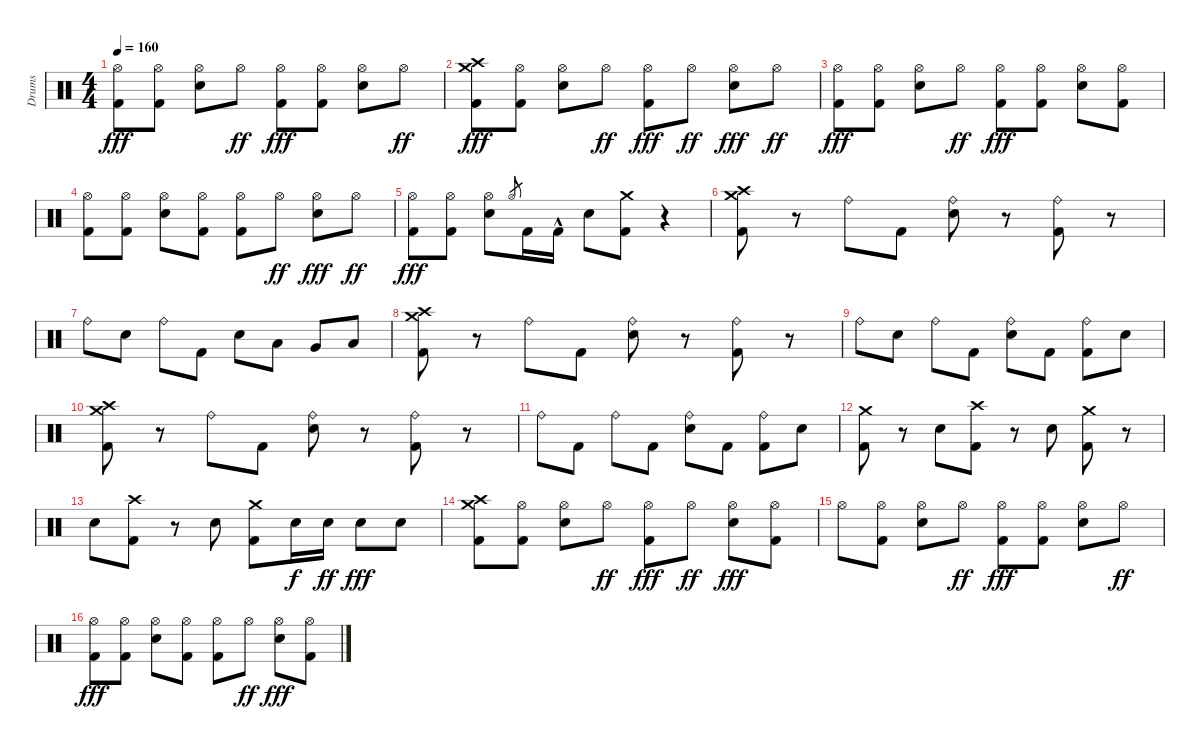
\track ("Drums" "Drums") {instrument percussion}
\staff {score}
\articulation defaults
\ts (4 4)
\tempo 160
\clef neutral
\ks c
("Hi-Hat (open)" "Kick (hit) 2").8{dy fff} ("Hi-Hat (open)" "Kick (hit) 2").8 ("Hi-Hat (open)" "Snare (hit) 2").8 "Hi-Hat (open)".8{dy ff} ("Hi-Hat (open)" "Kick (hit) 2").8{dy fff} ("Hi-Hat (open)" "Kick (hit) 2").8 ("Hi-Hat (open)" "Snare (hit) 2").8 "Hi-Hat (open)".8{dy ff} |
("Crash high (hit)" "Crash medium (hit)" "Kick (hit) 2").8{dy fff} ("Hi-Hat (open)" "Kick (hit) 2").8 ("Hi-Hat (open)" "Snare (hit) 2").8 "Hi-Hat (open)".8{dy ff} ("Hi-Hat (open)" "Kick (hit) 2").8{dy fff} "Hi-Hat (open)".8{dy ff} ("Hi-Hat (open)" "Snare (hit) 2").8{dy fff} "Hi-Hat (open)".8{dy ff} |
("Hi-Hat (open)" "Kick (hit) 2").8{dy fff} ("Hi-Hat (open)" "Kick (hit) 2").8 ("Hi-Hat (open)" "Snare (hit) 2").8 "Hi-Hat (open)".8{dy ff} ("Hi-Hat (open)" "Kick (hit) 2").8{dy fff} ("Hi-Hat (open)" "Kick (hit) 2").8 ("Hi-Hat (open)" "Snare (hit) 2").8 ("Hi-Hat (open)" "Kick (hit) 2").8 |
("Hi-Hat (open)" "Kick (hit) 2").8 ("Hi-Hat (open)" "Kick (hit) 2").8 ("Hi-Hat (open)" "Snare (hit) 2").8 ("Hi-Hat (open)" "Kick (hit) 2").8 ("Hi-Hat (open)" "Kick (hit) 2").8 "Hi-Hat (open)".8{dy ff} ("Hi-Hat (open)" "Snare (hit) 2").8{dy fff} "Hi-Hat (open)".8{dy ff} |
("Hi-Hat (open)" "Kick (hit) 2").8{dy fff} ("Hi-Hat (open)" "Kick (hit) 2").8 ("Hi-Hat (open)" "Snare (hit) 2").8 "Hi-Hat (open)".8{gr} "Kick (hit) 2".16 "Kick (hit) 2"{hac}.16 "Snare (hit) 2".8 ("Kick (hit) 2" "Crash medium (hit)").8 r.4 |
("Kick (hit) 2" "Crash high (hit)" "Crash medium (hit)").8 r.8 "Ride (bell)".8 "Kick (hit) 2".8 ("Ride (bell)" "Snare (hit) 2").8 r.8 ("Ride (bell)" "Kick (hit) 2").8 r.8 |
"Ride (bell)".8 "Snare (hit) 2".8 "Ride (bell)".8 "Kick (hit) 2".8 "Snare (hit) 2".8 "Low Tom (hit)".8 "Very Low Tom (hit)".8 "Low Floor Tom (hit)".8 |
("Kick (hit) 2" "Crash high (hit)" "Crash medium (hit)").8 r.8 "Ride (bell)".8 "Kick (hit) 2".8 ("Ride (bell)" "Snare (hit) 2").8 r.8 ("Ride (bell)" "Kick (hit) 2").8 r.8 |
"Ride (bell)".8 "Snare (hit) 2".8 "Ride (bell)".8 "Kick (hit) 2".8 ("Ride (bell)" "Snare (hit) 2").8 "Kick (hit) 2".8 ("Ride (bell)" "Kick (hit) 2").8 "Snare (hit) 2".8 |
("Kick (hit) 2" "Crash high (hit)" "Crash medium (hit)").8 r.8 "Ride (bell)".8 "Kick (hit) 2".8 ("Ride (bell)" "Snare (hit) 2").8 r.8 ("Ride (bell)" "Kick (hit) 2").8 r.8 |
"Ride (bell)".8 "Kick (hit) 2".8 "Ride (bell)".8 "Kick (hit) 2".8 ("Ride (bell)" "Snare (hit) 2").8 "Kick (hit) 2".8 ("Ride (bell)" "Kick (hit) 2").8 "Snare (hit) 2".8 |
("Kick (hit) 2" "Crash medium (hit)").8 r.8 "Snare (hit) 2".8 ("Crash high (hit)" "Kick (hit) 2").8 r.8 "Snare (hit) 2".8 ("Crash medium (hit)" "Kick (hit) 2").8 r.8 |
"Snare (hit) 2".8 ("Crash high (hit)" "Kick (hit) 2").8 r.8 "Snare (hit) 2".8 ("Crash medium (hit)" "Kick (hit) 2").8 "Snare (hit) 2".16{dy f} "Snare (hit) 2".16{dy ff} "Snare (hit) 2".8{dy fff} "Snare (hit) 2".8 |
("Crash high (hit)" "Crash medium (hit)" "Kick (hit) 2").8 ("Hi-Hat (open)" "Kick (hit) 2").8 ("Hi-Hat (open)" "Snare (hit) 2").8 "Hi-Hat (open)".8{dy ff} ("Hi-Hat (open)" "Kick (hit) 2").8{dy fff} "Hi-Hat (open)".8{dy ff} ("Hi-Hat (open)" "Snare (hit) 2").8{dy fff} ("Hi-Hat (open)" "Kick (hit) 2").8 |
"Hi-Hat (open)".8 ("Hi-Hat (open)" "Kick (hit) 2").8 ("Hi-Hat (open)" "Snare (hit) 2").8 "Hi-Hat (open)".8{dy ff} ("Hi-Hat (open)" "Kick (hit) 2").8{dy fff} ("Hi-Hat (open)" "Kick (hit) 2").8 ("Hi-Hat (open)" "Snare (hit) 2").8 "Hi-Hat (open)".8{dy ff} |
("Hi-Hat (open)" "Kick (hit) 2").8{dy fff} ("Hi-Hat (open)" "Kick (hit) 2").8 ("Hi-Hat (open)" "Snare (hit) 2").8 ("Hi-Hat (open)" "Kick (hit) 2").8 ("Hi-Hat (open)" "Kick (hit) 2").8 "Hi-Hat (open)".8{dy ff} ("Hi-Hat (open)" "Snare (hit) 2").8{dy fff} ("Hi-Hat (open)" "Kick (hit) 2").8
